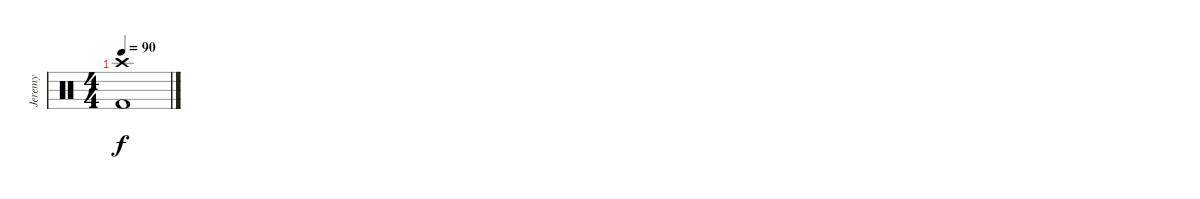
\track ("Jeremy" "Jeremy") {instrument percussion}
\staff {score}
\articulation defaults
\ts (4 4)
\tempo 90
\clef neutral
\ks c
("Crash high (hit)" "Kick (hit) 2").1{dy f}
